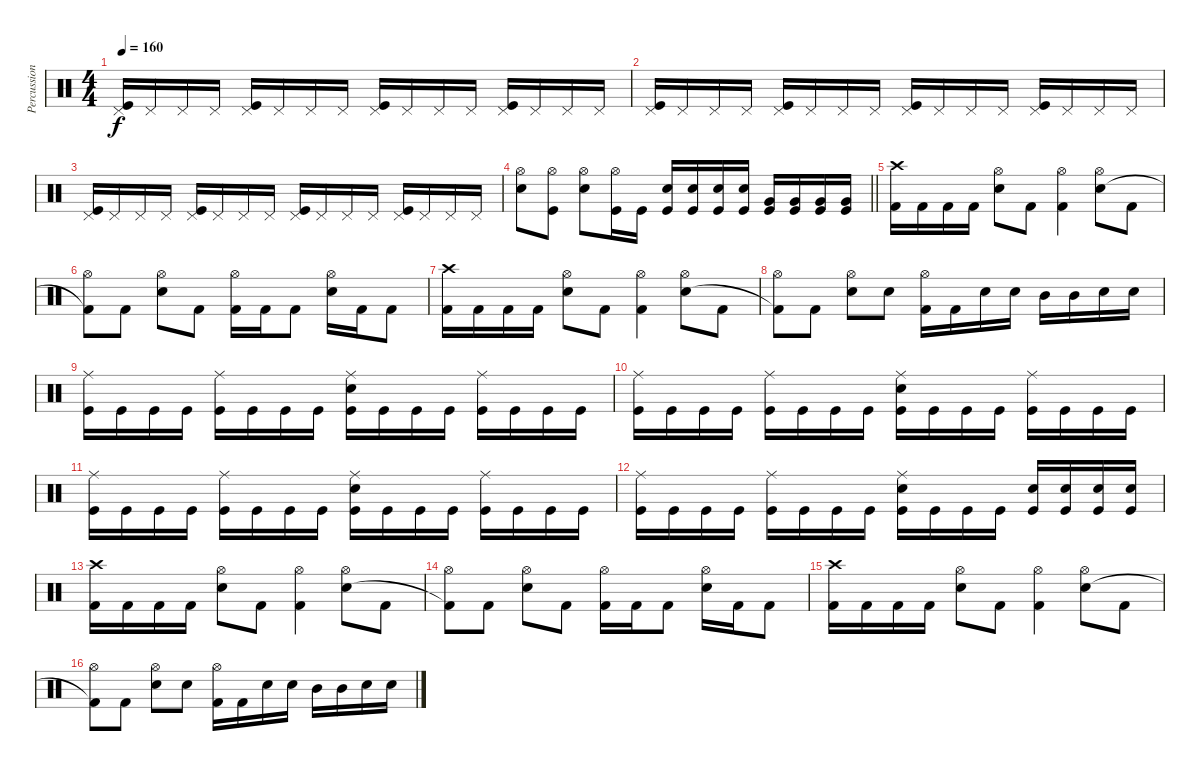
\track ("Percussioni" "Percussion") {instrument percussion}
\staff {score}
\articulation defaults
\ts (4 4)
\tempo 160
\clef neutral
\ks c
("Pedal Hi-Hat (hit)" "Kick (hit)").16{dy f} "Pedal Hi-Hat (hit)".16 "Pedal Hi-Hat (hit)".16 "Pedal Hi-Hat (hit)".16 ("Pedal Hi-Hat (hit)" "Kick (hit)").16 "Pedal Hi-Hat (hit)".16 "Pedal Hi-Hat (hit)".16 "Pedal Hi-Hat (hit)".16 ("Pedal Hi-Hat (hit)" "Kick (hit)").16 "Pedal Hi-Hat (hit)".16 "Pedal Hi-Hat (hit)".16 "Pedal Hi-Hat (hit)".16 ("Pedal Hi-Hat (hit)" "Kick (hit)").16 "Pedal Hi-Hat (hit)".16 "Pedal Hi-Hat (hit)".16 "Pedal Hi-Hat (hit)".16 |
("Pedal Hi-Hat (hit)" "Kick (hit)").16 "Pedal Hi-Hat (hit)".16 "Pedal Hi-Hat (hit)".16 "Pedal Hi-Hat (hit)".16 ("Pedal Hi-Hat (hit)" "Kick (hit)").16 "Pedal Hi-Hat (hit)".16 "Pedal Hi-Hat (hit)".16 "Pedal Hi-Hat (hit)".16 ("Pedal Hi-Hat (hit)" "Kick (hit)").16 "Pedal Hi-Hat (hit)".16 "Pedal Hi-Hat (hit)".16 "Pedal Hi-Hat (hit)".16 ("Pedal Hi-Hat (hit)" "Kick (hit)").16 "Pedal Hi-Hat (hit)".16 "Pedal Hi-Hat (hit)".16 "Pedal Hi-Hat (hit)".16 |
("Pedal Hi-Hat (hit)" "Kick (hit)").16 "Pedal Hi-Hat (hit)".16 "Pedal Hi-Hat (hit)".16 "Pedal Hi-Hat (hit)".16 ("Pedal Hi-Hat (hit)" "Kick (hit)").16 "Pedal Hi-Hat (hit)".16 "Pedal Hi-Hat (hit)".16 "Pedal Hi-Hat (hit)".16 ("Pedal Hi-Hat (hit)" "Kick (hit)").16 "Pedal Hi-Hat (hit)".16 "Pedal Hi-Hat (hit)".16 "Pedal Hi-Hat (hit)".16 ("Pedal Hi-Hat (hit)" "Kick (hit)").16 "Pedal Hi-Hat (hit)".16 "Pedal Hi-Hat (hit)".16 "Pedal Hi-Hat (hit)".16 |
\barLineRight lightlight
("Hi-Hat (open)" "Snare (hit) 2").8 ("Hi-Hat (open)" "Kick (hit)").8 ("Hi-Hat (open)" "Snare (hit) 2").8 ("Hi-Hat (open)" "Kick (hit)").16 "Kick (hit)".16 ("Snare (hit) 2" "Kick (hit)").16 ("Snare (hit) 2" "Kick (hit)").16 ("Snare (hit) 2" "Kick (hit)").16 ("Snare (hit) 2" "Kick (hit)").16 ("Very Low Tom (hit)" "Kick (hit)").16 ("Very Low Tom (hit)" "Kick (hit)").16 ("Very Low Tom (hit)" "Kick (hit)").16 ("Very Low Tom (hit)" "Kick (hit)").16 |
("Crash high (hit)" "Kick (hit) 2").16 "Kick (hit) 2".16 "Kick (hit) 2".16 "Kick (hit) 2".16 ("Hi-Hat (open)" "Electric Snare (hit)").8 "Kick (hit) 2".8 ("Hi-Hat (open)" "Kick (hit) 2").4 ("Hi-Hat (open)" "Electric Snare (hit)").8 "Kick (hit) 2".8 |
("Hi-Hat (open)" "Kick (hit) 2"{t}).8 "Kick (hit) 2".8 ("Hi-Hat (open)" "Electric Snare (hit)").8 "Kick (hit) 2".8 ("Hi-Hat (open)" "Kick (hit) 2").16 "Kick (hit) 2".16 "Kick (hit) 2".8 ("Hi-Hat (open)" "Electric Snare (hit)").16 "Kick (hit) 2".16 "Kick (hit) 2".8 |
("Crash high (hit)" "Kick (hit) 2").16 "Kick (hit) 2".16 "Kick (hit) 2".16 "Kick (hit) 2".16 ("Hi-Hat (open)" "Electric Snare (hit)").8 "Kick (hit) 2".8 ("Hi-Hat (open)" "Kick (hit) 2").4 ("Hi-Hat (open)" "Electric Snare (hit)").8 "Kick (hit) 2".8 |
("Hi-Hat (open)" "Kick (hit) 2"{t}).8 "Kick (hit) 2".8 ("Hi-Hat (open)" "Electric Snare (hit)").8 "Electric Snare (hit)".8 ("Hi-Hat (open)" "Kick (hit) 2").16 "Kick (hit) 2".16 "Electric Snare (hit)".16 "Electric Snare (hit)".16 "Mid Tom (hit)".16 "Mid Tom (hit)".16 "Electric Snare (hit)".16 "Electric Snare (hit)".16 |
("Ride (middle)" "Kick (hit)").16 "Kick (hit)".16 "Kick (hit)".16 "Kick (hit)".16 ("Ride (middle)" "Kick (hit)").16 "Kick (hit)".16 "Kick (hit)".16 "Kick (hit)".16 ("Snare (hit) 2" "Ride (middle)" "Kick (hit)").16 "Kick (hit)".16 "Kick (hit)".16 "Kick (hit)".16 ("Ride (middle)" "Kick (hit)").16 "Kick (hit)".16 "Kick (hit)".16 "Kick (hit)".16 |
("Ride (middle)" "Kick (hit)").16 "Kick (hit)".16 "Kick (hit)".16 "Kick (hit)".16 ("Ride (middle)" "Kick (hit)").16 "Kick (hit)".16 "Kick (hit)".16 "Kick (hit)".16 ("Snare (hit) 2" "Ride (middle)" "Kick (hit)").16 "Kick (hit)".16 "Kick (hit)".16 "Kick (hit)".16 ("Ride (middle)" "Kick (hit)").16 "Kick (hit)".16 "Kick (hit)".16 "Kick (hit)".16 |
("Ride (middle)" "Kick (hit)").16 "Kick (hit)".16 "Kick (hit)".16 "Kick (hit)".16 ("Ride (middle)" "Kick (hit)").16 "Kick (hit)".16 "Kick (hit)".16 "Kick (hit)".16 ("Snare (hit) 2" "Ride (middle)" "Kick (hit)").16 "Kick (hit)".16 "Kick (hit)".16 "Kick (hit)".16 ("Ride (middle)" "Kick (hit)").16 "Kick (hit)".16 "Kick (hit)".16 "Kick (hit)".16 |
("Ride (middle)" "Kick (hit)").16 "Kick (hit)".16 "Kick (hit)".16 "Kick (hit)".16 ("Ride (middle)" "Kick (hit)").16 "Kick (hit)".16 "Kick (hit)".16 "Kick (hit)".16 ("Snare (hit) 2" "Ride (middle)" "Kick (hit)").16 "Kick (hit)".16 "Kick (hit)".16 "Kick (hit)".16 ("Snare (hit) 2" "Kick (hit)").16 ("Snare (hit) 2" "Kick (hit)").16 ("Snare (hit) 2" "Kick (hit)").16 ("Snare (hit) 2" "Kick (hit)").16 |
("Crash high (hit)" "Kick (hit) 2").16 "Kick (hit) 2".16 "Kick (hit) 2".16 "Kick (hit) 2".16 ("Hi-Hat (open)" "Electric Snare (hit)").8 "Kick (hit) 2".8 ("Hi-Hat (open)" "Kick (hit) 2").4 ("Hi-Hat (open)" "Electric Snare (hit)").8 "Kick (hit) 2".8 |
("Hi-Hat (open)" "Kick (hit) 2"{t}).8 "Kick (hit) 2".8 ("Hi-Hat (open)" "Electric Snare (hit)").8 "Kick (hit) 2".8 ("Hi-Hat (open)" "Kick (hit) 2").16 "Kick (hit) 2".16 "Kick (hit) 2".8 ("Hi-Hat (open)" "Electric Snare (hit)").16 "Kick (hit) 2".16 "Kick (hit) 2".8 |
("Crash high (hit)" "Kick (hit) 2").16 "Kick (hit) 2".16 "Kick (hit) 2".16 "Kick (hit) 2".16 ("Hi-Hat (open)" "Electric Snare (hit)").8 "Kick (hit) 2".8 ("Hi-Hat (open)" "Kick (hit) 2").4 ("Hi-Hat (open)" "Electric Snare (hit)").8 "Kick (hit) 2".8 |
("Hi-Hat (open)" "Kick (hit) 2"{t}).8 "Kick (hit) 2".8 ("Hi-Hat (open)" "Electric Snare (hit)").8 "Electric Snare (hit)".8 ("Hi-Hat (open)" "Kick (hit) 2").16 "Kick (hit) 2".16 "Electric Snare (hit)".16 "Electric Snare (hit)".16 "Mid Tom (hit)".16 "Mid Tom (hit)".16 "Electric Snare (hit)".16 "Electric Snare (hit)".16
